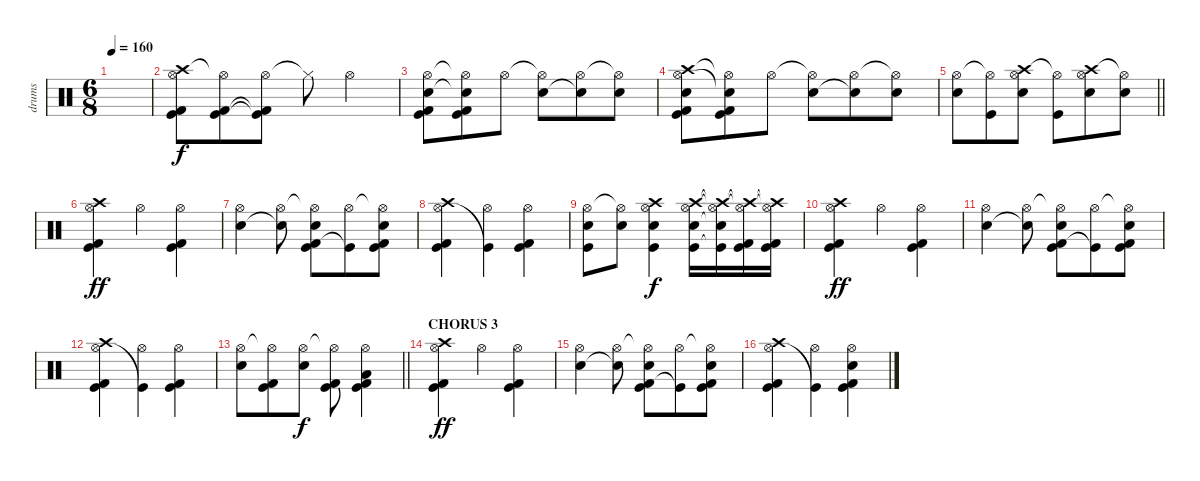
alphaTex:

\track ("drums" "drums") {instrument percussion}
\staff {score}
\articulation defaults
\ts (6 8)
\tempo 160
\clef neutral
\ks c
|
("Crash high (hit)" "Hi-Hat (open)" "Kick (hit) 2" "Kick (hit)").8 ("Hi-Hat (open)"{t} "Kick (hit)" "Kick (hit) 2").8 ("Hi-Hat (open)" "Kick (hit)"{t} "Kick (hit) 2"{t}).8 "Hi-Hat (closed)"{t}.8 "Hi-Hat (open)".4 |
("Hi-Hat (open)" "Electric Snare (hit)" "Kick (hit) 2" "Kick (hit)").8 ("Hi-Hat (open)"{t} "Electric Snare (hit)"{t} "Kick (hit) 2" "Kick (hit)").8 "Hi-Hat (open)".8 ("Hi-Hat (open)"{t} "Electric Snare (hit)").8 ("Hi-Hat (open)" "Electric Snare (hit)"{t}).8 ("Hi-Hat (open)"{t} "Electric Snare (hit)").8 |
("Crash high (hit)" "Hi-Hat (open)" "Electric Snare (hit)" "Kick (hit) 2" "Kick (hit)").8 ("Hi-Hat (open)"{t} "Electric Snare (hit)"{t} "Kick (hit) 2" "Kick (hit)").8 "Hi-Hat (open)".8 ("Hi-Hat (open)"{t} "Electric Snare (hit)").8 ("Hi-Hat (open)" "Electric Snare (hit)"{t}).8 ("Hi-Hat (open)"{t} "Electric Snare (hit)").8 |
\barLineRight lightlight
("Hi-Hat (open)" "Electric Snare (hit)").8 ("Hi-Hat (open)"{t} "Kick (hit)").8 ("Crash high (hit)" "Hi-Hat (open)" "Electric Snare (hit)").8 ("Hi-Hat (open)"{t} "Kick (hit)").8 ("Crash high (hit)" "Hi-Hat (open)" "Electric Snare (hit)").8 ("Hi-Hat (open)"{t} "Electric Snare (hit)").8 |
("Crash high (hit)" "Hi-Hat (open)" "Kick (hit) 2" "Kick (hit)").4{dy ff} "Hi-Hat (open)".4 ("Hi-Hat (open)" "Kick (hit) 2" "Kick (hit)").4 |
("Hi-Hat (open)" "Electric Snare (hit)").4 ("Hi-Hat (open)" "Electric Snare (hit)"{t}).8 ("Hi-Hat (open)"{t} "Kick (hit) 2" "Electric Snare (hit)" "Kick (hit)").8 ("Hi-Hat (open)" "Kick (hit)"{t}).8 ("Hi-Hat (open)"{t} "Kick (hit) 2" "Electric Snare (hit)" "Kick (hit)").8 |
("Crash high (hit)" "Hi-Hat (open)" "Kick (hit) 2" "Kick (hit)").4 ("Hi-Hat (open)" "Kick (hit)"{t}).4 ("Hi-Hat (open)" "Kick (hit) 2" "Kick (hit)").4 |
("Hi-Hat (open)" "Electric Snare (hit)" "Kick (hit)").8 ("Hi-Hat (open)"{t} "Electric Snare (hit)").8 ("Crash high (hit)" "Hi-Hat (open)" "Electric Snare (hit)" "Kick (hit)").4{dy f} ("Crash high (hit)" "Hi-Hat (open)" "Electric Snare (hit)" "Kick (hit)").16 ("Crash high (hit)"{t} "Hi-Hat (open)"{t} "Electric Snare (hit)"{t} "Kick (hit)"{t}).16 ("Crash high (hit)"{t} "Hi-Hat (open)"{t} "Kick (hit) 2" "Kick (hit)").16 ("Crash high (hit)"{t} "Hi-Hat (open)"{t} "Kick (hit) 2" "Kick (hit)").16 |
("Crash high (hit)" "Hi-Hat (open)" "Kick (hit) 2" "Kick (hit)").4{dy ff} "Hi-Hat (open)".4 ("Hi-Hat (open)" "Kick (hit) 2" "Kick (hit)").4 |
("Hi-Hat (open)" "Electric Snare (hit)").4 ("Hi-Hat (open)" "Electric Snare (hit)"{t}).8 ("Hi-Hat (open)"{t} "Kick (hit) 2" "Electric Snare (hit)" "Kick (hit)").8 ("Hi-Hat (open)" "Kick (hit)"{t}).8 ("Hi-Hat (open)"{t} "Kick (hit) 2" "Electric Snare (hit)" "Kick (hit)").8 |
("Crash high (hit)" "Hi-Hat (open)" "Kick (hit) 2" "Kick (hit)").4 ("Hi-Hat (open)" "Kick (hit)"{t}).4 ("Hi-Hat (open)" "Kick (hit) 2" "Kick (hit)").4 |
\barLineRight lightlight
("Hi-Hat (open)" "Electric Snare (hit)").8 ("Hi-Hat (open)"{t} "Kick (hit) 2" "Kick (hit)").8 ("Hi-Hat (open)" "Electric Snare (hit)").8{dy f} ("Hi-Hat (open)"{t} "Kick (hit) 2" "Kick (hit)").8 ("Hi-Hat (open)" "Low Floor Tom (hit)" "Kick (hit) 2" "Kick (hit)").4 |
\section ("" "CHORUS 3")
("Crash high (hit)" "Hi-Hat (open)" "Kick (hit) 2" "Kick (hit)").4{dy ff} "Hi-Hat (open)".4 ("Hi-Hat (open)" "Kick (hit) 2" "Kick (hit)").4 |
("Hi-Hat (open)" "Electric Snare (hit)").4 ("Hi-Hat (open)" "Electric Snare (hit)"{t}).8 ("Hi-Hat (open)"{t} "Kick (hit) 2" "Electric Snare (hit)" "Kick (hit)").8 ("Hi-Hat (open)" "Kick (hit)"{t}).8 ("Hi-Hat (open)"{t} "Kick (hit) 2" "Electric Snare (hit)" "Kick (hit)").8 |
("Crash high (hit)" "Hi-Hat (open)" "Kick (hit) 2" "Kick (hit)").4 ("Hi-Hat (open)" "Kick (hit)"{t}).4 ("Hi-Hat (open)" "Electric Snare (hit)" "Kick (hit) 2" "Kick (hit)").4
